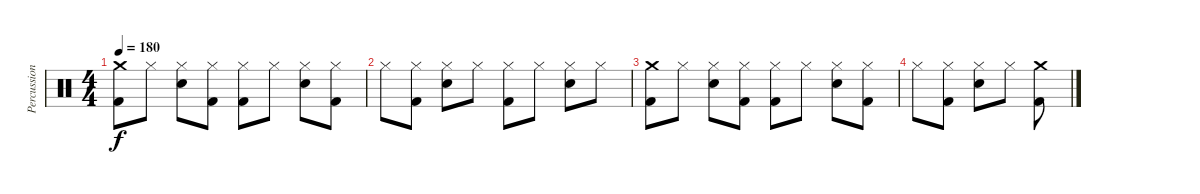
\track ("Percussion" "Percussion") {instrument percussion}
\staff {score}
\articulation defaults
\ts (4 4)
\tempo 180
\clef neutral
\ks c
("Crash medium (hit)" "Kick (hit) 2").8{dy f} "Hi-Hat (closed)".8 ("Hi-Hat (closed)" "Electric Snare (hit)").8 ("Hi-Hat (closed)" "Kick (hit) 2").8 ("Hi-Hat (closed)" "Kick (hit) 2").8 "Hi-Hat (closed)".8 ("Hi-Hat (closed)" "Electric Snare (hit)").8 ("Hi-Hat (closed)" "Kick (hit) 2").8 |
"Hi-Hat (closed)".8 ("Hi-Hat (closed)" "Kick (hit) 2").8 ("Hi-Hat (closed)" "Electric Snare (hit)").8 "Hi-Hat (closed)".8 ("Hi-Hat (closed)" "Kick (hit) 2").8 "Hi-Hat (closed)".8 ("Hi-Hat (closed)" "Electric Snare (hit)").8 "Hi-Hat (closed)".8 |
("Crash medium (hit)" "Kick (hit) 2").8 "Hi-Hat (closed)".8 ("Hi-Hat (closed)" "Electric Snare (hit)").8 ("Hi-Hat (closed)" "Kick (hit) 2").8 ("Hi-Hat (closed)" "Kick (hit) 2").8 "Hi-Hat (closed)".8 ("Hi-Hat (closed)" "Electric Snare (hit)").8 ("Hi-Hat (closed)" "Kick (hit) 2").8 |
"Hi-Hat (closed)".8 ("Hi-Hat (closed)" "Kick (hit) 2").8 ("Hi-Hat (closed)" "Electric Snare (hit)").8 "Hi-Hat (closed)".8 ("Crash medium (hit)" "Kick (hit) 2").8
